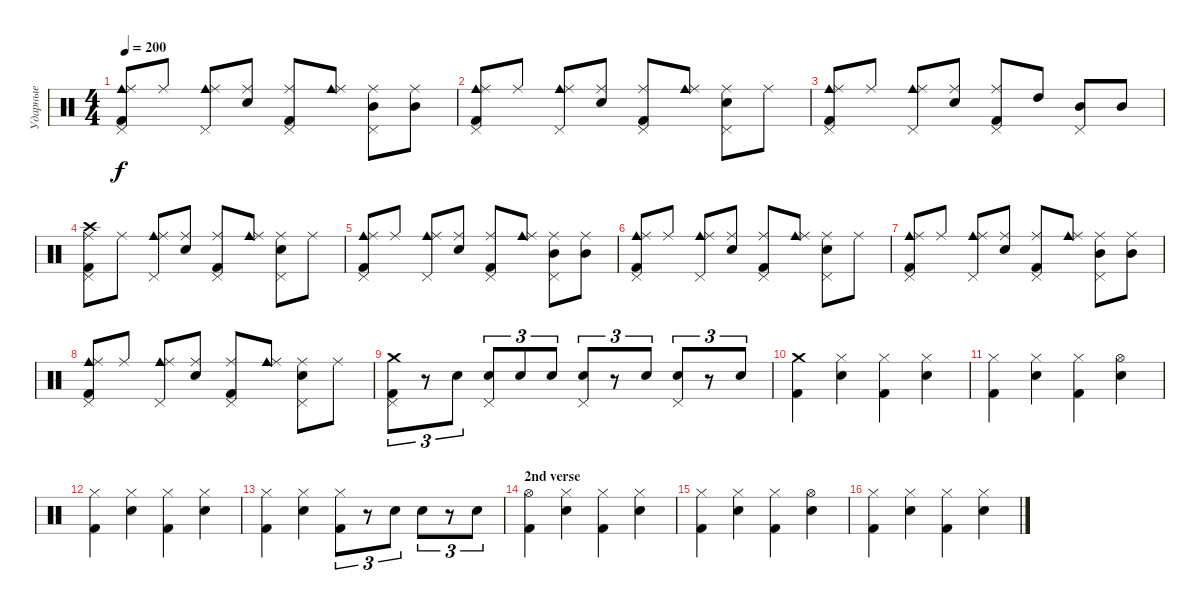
\track ("Ударные" "Ударные") {instrument percussion}
\staff {score}
\articulation defaults
\ts (4 4)
\tempo 200
\clef neutral
\ks c
("Cowbell medium (hit)" "Ride (middle)" "Kick (hit) 2" "Pedal Hi-Hat (hit)").8{dy f} "Ride (middle)".8 ("Cowbell medium (hit)" "Ride (middle)" "Pedal Hi-Hat (hit)").8 ("Electric Snare (hit)" "Ride (middle)").8 ("Ride (middle)" "Kick (hit) 2" "Pedal Hi-Hat (hit)").8 ("Cowbell medium (hit)" "Ride (middle)").8 ("Mid Tom (hit)" "Ride (middle)" "Pedal Hi-Hat (hit)").8 ("Mid Tom (hit)" "Ride (middle)").8 |
("Cowbell medium (hit)" "Ride (middle)" "Kick (hit) 2" "Pedal Hi-Hat (hit)").8 "Ride (middle)".8 ("Cowbell medium (hit)" "Ride (middle)" "Pedal Hi-Hat (hit)").8 ("Electric Snare (hit)" "Ride (middle)").8 ("Ride (middle)" "Kick (hit) 2" "Pedal Hi-Hat (hit)").8 ("Cowbell medium (hit)" "Ride (middle)").8 ("Electric Snare (hit)" "Ride (middle)" "Pedal Hi-Hat (hit)").8 "Ride (middle)".8 |
("Cowbell medium (hit)" "Ride (middle)" "Kick (hit) 2" "Pedal Hi-Hat (hit)").8 "Ride (middle)".8 ("Cowbell medium (hit)" "Ride (middle)" "Pedal Hi-Hat (hit)").8 ("Electric Snare (hit)" "Ride (middle)").8 ("Ride (middle)" "Kick (hit) 2" "Pedal Hi-Hat (hit)").8 "High Tom (hit)".8 ("Mid Tom (hit)" "Pedal Hi-Hat (hit)").8 "Mid Tom (hit)".8 |
("Crash high (hit)" "Ride (middle)" "Kick (hit) 2" "Pedal Hi-Hat (hit)").8 "Ride (middle)".8 ("Cowbell medium (hit)" "Ride (middle)" "Pedal Hi-Hat (hit)").8 ("Electric Snare (hit)" "Ride (middle)").8 ("Ride (middle)" "Kick (hit) 2" "Pedal Hi-Hat (hit)").8 ("Cowbell medium (hit)" "Ride (middle)").8 ("Electric Snare (hit)" "Ride (middle)" "Pedal Hi-Hat (hit)").8 "Ride (middle)".8 |
("Cowbell medium (hit)" "Ride (middle)" "Kick (hit) 2" "Pedal Hi-Hat (hit)").8 "Ride (middle)".8 ("Cowbell medium (hit)" "Ride (middle)" "Pedal Hi-Hat (hit)").8 ("Electric Snare (hit)" "Ride (middle)").8 ("Ride (middle)" "Kick (hit) 2" "Pedal Hi-Hat (hit)").8 ("Cowbell medium (hit)" "Ride (middle)").8 ("Mid Tom (hit)" "Ride (middle)" "Pedal Hi-Hat (hit)").8 ("Mid Tom (hit)" "Ride (middle)").8 |
("Cowbell medium (hit)" "Ride (middle)" "Kick (hit) 2" "Pedal Hi-Hat (hit)").8 "Ride (middle)".8 ("Cowbell medium (hit)" "Ride (middle)" "Pedal Hi-Hat (hit)").8 ("Electric Snare (hit)" "Ride (middle)").8 ("Ride (middle)" "Kick (hit) 2" "Pedal Hi-Hat (hit)").8 ("Cowbell medium (hit)" "Ride (middle)").8 ("Electric Snare (hit)" "Ride (middle)" "Pedal Hi-Hat (hit)").8 "Ride (middle)".8 |
("Cowbell medium (hit)" "Ride (middle)" "Kick (hit) 2" "Pedal Hi-Hat (hit)").8 "Ride (middle)".8 ("Cowbell medium (hit)" "Ride (middle)" "Pedal Hi-Hat (hit)").8 ("Electric Snare (hit)" "Ride (middle)").8 ("Ride (middle)" "Kick (hit) 2" "Pedal Hi-Hat (hit)").8 ("Cowbell medium (hit)" "Ride (middle)").8 ("Mid Tom (hit)" "Ride (middle)" "Pedal Hi-Hat (hit)").8 ("Mid Tom (hit)" "Ride (middle)").8 |
("Cowbell medium (hit)" "Ride (middle)" "Kick (hit) 2" "Pedal Hi-Hat (hit)").8 "Ride (middle)".8 ("Cowbell medium (hit)" "Ride (middle)" "Pedal Hi-Hat (hit)").8 ("Electric Snare (hit)" "Ride (middle)").8 ("Ride (middle)" "Kick (hit) 2" "Pedal Hi-Hat (hit)").8 ("Cowbell medium (hit)" "Ride (middle)").8 ("Electric Snare (hit)" "Ride (middle)" "Pedal Hi-Hat (hit)").8 "Ride (middle)".8 |
("Crash medium (hit)" "Kick (hit) 2" "Pedal Hi-Hat (hit)").8{tu (3 2)} r.8{tu (3 2)} "Electric Snare (hit)".8{tu (3 2)} ("Electric Snare (hit)" "Pedal Hi-Hat (hit)").8{tu (3 2)} "Electric Snare (hit)".8{tu (3 2)} "Electric Snare (hit)".8{tu (3 2)} ("Electric Snare (hit)" "Pedal Hi-Hat (hit)").8{tu (3 2)} r.8{tu (3 2)} "Electric Snare (hit)".8{tu (3 2)} ("Electric Snare (hit)" "Pedal Hi-Hat (hit)").8{tu (3 2)} r.8{tu (3 2)} "Electric Snare (hit)".8{tu (3 2)} |
("Crash medium (hit)" "Kick (hit) 2").4 ("Hi-Hat (closed)" "Electric Snare (hit)").4 ("Hi-Hat (closed)" "Kick (hit) 2").4 ("Hi-Hat (closed)" "Electric Snare (hit)").4 |
("Hi-Hat (closed)" "Kick (hit) 2").4 ("Hi-Hat (closed)" "Electric Snare (hit)").4 ("Hi-Hat (closed)" "Kick (hit) 2").4 ("Hi-Hat (open)" "Electric Snare (hit)").4 |
("Hi-Hat (closed)" "Kick (hit) 2").4 ("Hi-Hat (closed)" "Electric Snare (hit)").4 ("Hi-Hat (closed)" "Kick (hit) 2").4 ("Hi-Hat (closed)" "Electric Snare (hit)").4 |
("Hi-Hat (closed)" "Kick (hit) 2").4 ("Hi-Hat (closed)" "Electric Snare (hit)").4 ("Hi-Hat (closed)" "Kick (hit) 2").8{tu (3 2)} r.8{tu (3 2)} "Electric Snare (hit)".8{tu (3 2)} "Electric Snare (hit)".8{tu (3 2)} r.8{tu (3 2)} "Electric Snare (hit)".8{tu (3 2)} |
\section ("" "2nd verse")
("Hi-Hat (open)" "Kick (hit) 2").4 ("Hi-Hat (closed)" "Electric Snare (hit)").4 ("Hi-Hat (closed)" "Kick (hit) 2").4 ("Hi-Hat (closed)" "Electric Snare (hit)").4 |
("Hi-Hat (closed)" "Kick (hit) 2").4 ("Hi-Hat (closed)" "Electric Snare (hit)").4 ("Hi-Hat (closed)" "Kick (hit) 2").4 ("Hi-Hat (open)" "Electric Snare (hit)").4 |
("Hi-Hat (closed)" "Kick (hit) 2").4 ("Hi-Hat (closed)" "Electric Snare (hit)").4 ("Hi-Hat (closed)" "Kick (hit) 2").4 ("Hi-Hat (closed)" "Electric Snare (hit)").4
